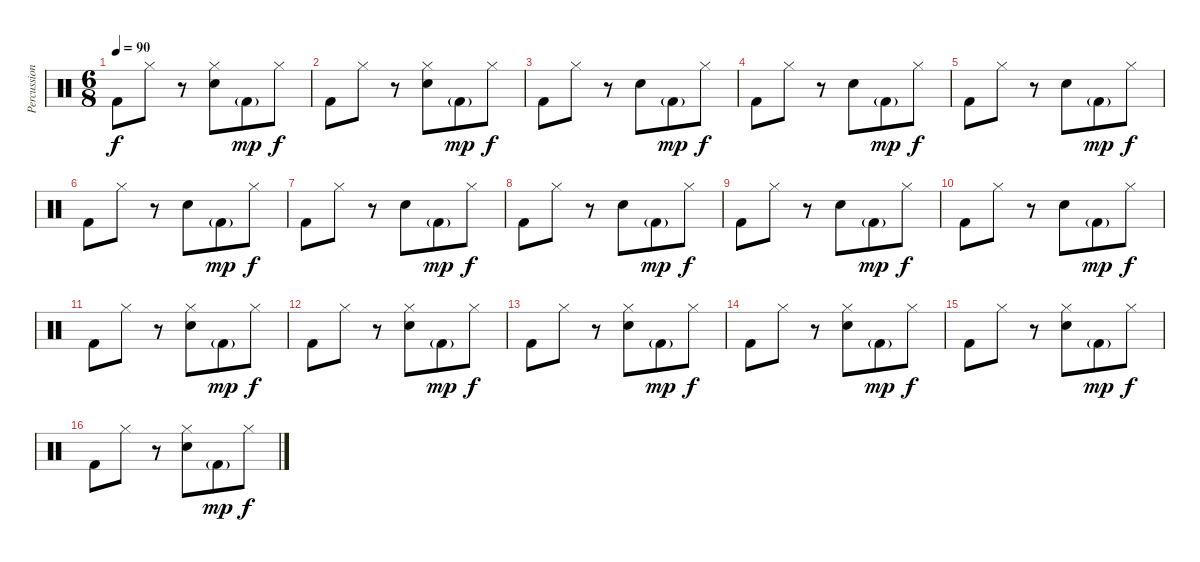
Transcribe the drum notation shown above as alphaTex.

\track ("Percussion" "Percussion") {instrument percussion}
\staff {score}
\articulation defaults
\ts (6 8)
\tempo 90
\clef neutral
\ks c "Kick (hit) 2".8{dy f} "Hi-Hat (closed)".8
r.8 ("Hi-Hat (closed)" "Snare (hit) 2").8 "Kick (hit) 2"{g}.8{dy mp} "Hi-Hat (closed)".8{dy f} |
"Kick (hit) 2".8 "Hi-Hat (closed)".8 r.8 ("Hi-Hat (closed)" "Snare (hit) 2").8 "Kick (hit) 2"{g}.8{dy mp} "Hi-Hat (closed)".8{dy f} |
"Kick (hit) 2".8 "Hi-Hat (closed)".8 r.8 "Snare (hit) 2".8 "Kick (hit) 2"{g}.8{dy mp} "Hi-Hat (closed)".8{dy f} |
"Kick (hit) 2".8 "Hi-Hat (closed)".8 r.8 "Snare (hit) 2".8 "Kick (hit) 2"{g}.8{dy mp} "Hi-Hat (closed)".8{dy f} |
"Kick (hit) 2".8 "Hi-Hat (closed)".8 r.8 "Snare (hit) 2".8 "Kick (hit) 2"{g}.8{dy mp} "Hi-Hat (closed)".8{dy f} |
"Kick (hit) 2".8 "Hi-Hat (closed)".8 r.8 "Snare (hit) 2".8 "Kick (hit) 2"{g}.8{dy mp} "Hi-Hat (closed)".8{dy f} |
"Kick (hit) 2".8 "Hi-Hat (closed)".8 r.8 "Snare (hit) 2".8 "Kick (hit) 2"{g}.8{dy mp} "Hi-Hat (closed)".8{dy f} |
"Kick (hit) 2".8 "Hi-Hat (closed)".8 r.8 "Snare (hit) 2".8 "Kick (hit) 2"{g}.8{dy mp} "Hi-Hat (closed)".8{dy f} |
"Kick (hit) 2".8 "Hi-Hat (closed)".8 r.8 "Snare (hit) 2".8 "Kick (hit) 2"{g}.8{dy mp} "Hi-Hat (closed)".8{dy f} |
"Kick (hit) 2".8 "Hi-Hat (closed)".8 r.8 "Snare (hit) 2".8 "Kick (hit) 2"{g}.8{dy mp} "Hi-Hat (closed)".8{dy f} |
"Kick (hit) 2".8 "Hi-Hat (closed)".8 r.8 ("Hi-Hat (closed)" "Snare (hit) 2").8 "Kick (hit) 2"{g}.8{dy mp} "Hi-Hat (closed)".8{dy f} |
"Kick (hit) 2".8 "Hi-Hat (closed)".8 r.8 ("Hi-Hat (closed)" "Snare (hit) 2").8 "Kick (hit) 2"{g}.8{dy mp} "Hi-Hat (closed)".8{dy f} |
"Kick (hit) 2".8 "Hi-Hat (closed)".8 r.8 ("Hi-Hat (closed)" "Snare (hit) 2").8 "Kick (hit) 2"{g}.8{dy mp} "Hi-Hat (closed)".8{dy f} |
"Kick (hit) 2".8 "Hi-Hat (closed)".8 r.8 ("Hi-Hat (closed)" "Snare (hit) 2").8 "Kick (hit) 2"{g}.8{dy mp} "Hi-Hat (closed)".8{dy f} |
"Kick (hit) 2".8 "Hi-Hat (closed)".8 r.8 ("Hi-Hat (closed)" "Snare (hit) 2").8 "Kick (hit) 2"{g}.8{dy mp} "Hi-Hat (closed)".8{dy f} |
"Kick (hit) 2".8 "Hi-Hat (closed)".8 r.8 ("Hi-Hat (closed)" "Snare (hit) 2").8 "Kick (hit) 2"{g}.8{dy mp} "Hi-Hat (closed)".8{dy f}
